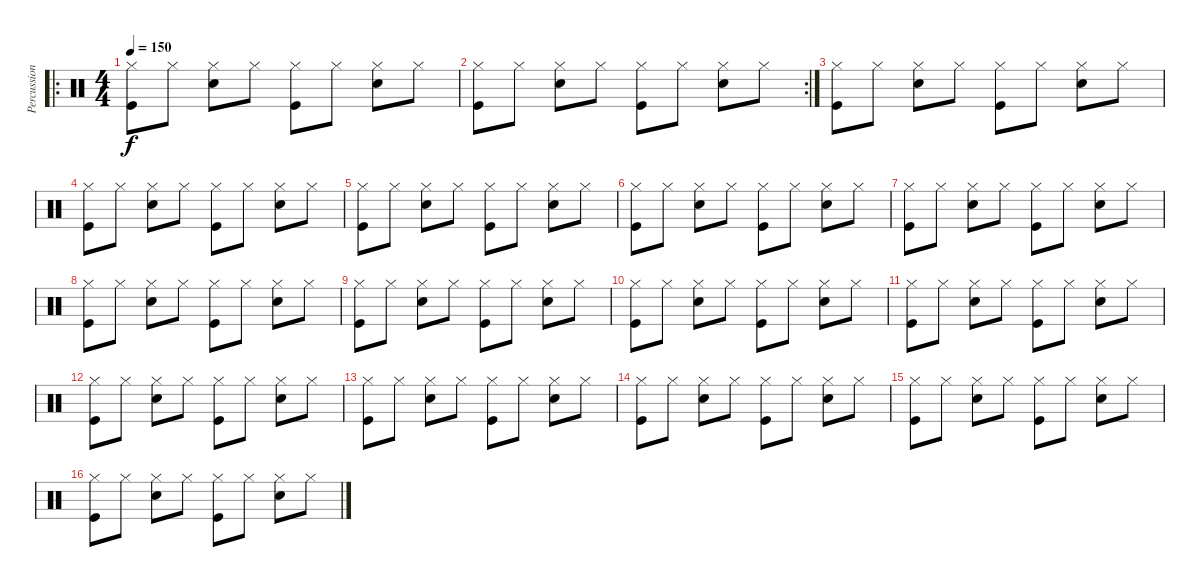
\track ("Percussion" "Percussion") {instrument percussion}
\staff {score}
\articulation defaults
\ro
\ts (4 4)
\tempo 150
\clef neutral
\ks c
("Hi-Hat (closed)" "Kick (hit)").8{dy f} "Hi-Hat (closed)".8 ("Hi-Hat (closed)" "Snare (hit) 2").8 "Hi-Hat (closed)".8 ("Hi-Hat (closed)" "Kick (hit)").8 "Hi-Hat (closed)".8 ("Hi-Hat (closed)" "Snare (hit) 2").8 "Hi-Hat (closed)".8 |
\rc 2
("Hi-Hat (closed)" "Kick (hit)").8 "Hi-Hat (closed)".8 ("Hi-Hat (closed)" "Snare (hit) 2").8 "Hi-Hat (closed)".8 ("Hi-Hat (closed)" "Kick (hit)").8 "Hi-Hat (closed)".8 ("Hi-Hat (closed)" "Snare (hit) 2").8 "Hi-Hat (closed)".8 |
("Hi-Hat (closed)" "Kick (hit)").8 "Hi-Hat (closed)".8 ("Hi-Hat (closed)" "Snare (hit) 2").8 "Hi-Hat (closed)".8 ("Hi-Hat (closed)" "Kick (hit)").8 "Hi-Hat (closed)".8 ("Hi-Hat (closed)" "Snare (hit) 2").8 "Hi-Hat (closed)".8 |
("Hi-Hat (closed)" "Kick (hit)").8 "Hi-Hat (closed)".8 ("Hi-Hat (closed)" "Snare (hit) 2").8 "Hi-Hat (closed)".8 ("Hi-Hat (closed)" "Kick (hit)").8 "Hi-Hat (closed)".8 ("Hi-Hat (closed)" "Snare (hit) 2").8 "Hi-Hat (closed)".8 |
("Hi-Hat (closed)" "Kick (hit)").8 "Hi-Hat (closed)".8 ("Hi-Hat (closed)" "Snare (hit) 2").8 "Hi-Hat (closed)".8 ("Hi-Hat (closed)" "Kick (hit)").8 "Hi-Hat (closed)".8 ("Hi-Hat (closed)" "Snare (hit) 2").8 "Hi-Hat (closed)".8 |
("Hi-Hat (closed)" "Kick (hit)").8 "Hi-Hat (closed)".8 ("Hi-Hat (closed)" "Snare (hit) 2").8 "Hi-Hat (closed)".8 ("Hi-Hat (closed)" "Kick (hit)").8 "Hi-Hat (closed)".8 ("Hi-Hat (closed)" "Snare (hit) 2").8 "Hi-Hat (closed)".8 |
("Hi-Hat (closed)" "Kick (hit)").8 "Hi-Hat (closed)".8 ("Hi-Hat (closed)" "Snare (hit) 2").8 "Hi-Hat (closed)".8 ("Hi-Hat (closed)" "Kick (hit)").8 "Hi-Hat (closed)".8 ("Hi-Hat (closed)" "Snare (hit) 2").8 "Hi-Hat (closed)".8 |
("Hi-Hat (closed)" "Kick (hit)").8 "Hi-Hat (closed)".8 ("Hi-Hat (closed)" "Snare (hit) 2").8 "Hi-Hat (closed)".8 ("Hi-Hat (closed)" "Kick (hit)").8 "Hi-Hat (closed)".8 ("Hi-Hat (closed)" "Snare (hit) 2").8 "Hi-Hat (closed)".8 |
("Hi-Hat (closed)" "Kick (hit)").8 "Hi-Hat (closed)".8 ("Hi-Hat (closed)" "Snare (hit) 2").8 "Hi-Hat (closed)".8 ("Hi-Hat (closed)" "Kick (hit)").8 "Hi-Hat (closed)".8 ("Hi-Hat (closed)" "Snare (hit) 2").8 "Hi-Hat (closed)".8 |
("Hi-Hat (closed)" "Kick (hit)").8 "Hi-Hat (closed)".8 ("Hi-Hat (closed)" "Snare (hit) 2").8 "Hi-Hat (closed)".8 ("Hi-Hat (closed)" "Kick (hit)").8 "Hi-Hat (closed)".8 ("Hi-Hat (closed)" "Snare (hit) 2").8 "Hi-Hat (closed)".8 |
("Hi-Hat (closed)" "Kick (hit)").8 "Hi-Hat (closed)".8 ("Hi-Hat (closed)" "Snare (hit) 2").8 "Hi-Hat (closed)".8 ("Hi-Hat (closed)" "Kick (hit)").8 "Hi-Hat (closed)".8 ("Hi-Hat (closed)" "Snare (hit) 2").8 "Hi-Hat (closed)".8 |
("Hi-Hat (closed)" "Kick (hit)").8 "Hi-Hat (closed)".8 ("Hi-Hat (closed)" "Snare (hit) 2").8 "Hi-Hat (closed)".8 ("Hi-Hat (closed)" "Kick (hit)").8 "Hi-Hat (closed)".8 ("Hi-Hat (closed)" "Snare (hit) 2").8 "Hi-Hat (closed)".8 |
("Hi-Hat (closed)" "Kick (hit)").8 "Hi-Hat (closed)".8 ("Hi-Hat (closed)" "Snare (hit) 2").8 "Hi-Hat (closed)".8 ("Hi-Hat (closed)" "Kick (hit)").8 "Hi-Hat (closed)".8 ("Hi-Hat (closed)" "Snare (hit) 2").8 "Hi-Hat (closed)".8 |
("Hi-Hat (closed)" "Kick (hit)").8 "Hi-Hat (closed)".8 ("Hi-Hat (closed)" "Snare (hit) 2").8 "Hi-Hat (closed)".8 ("Hi-Hat (closed)" "Kick (hit)").8 "Hi-Hat (closed)".8 ("Hi-Hat (closed)" "Snare (hit) 2").8 "Hi-Hat (closed)".8 |
("Hi-Hat (closed)" "Kick (hit)").8 "Hi-Hat (closed)".8 ("Hi-Hat (closed)" "Snare (hit) 2").8 "Hi-Hat (closed)".8 ("Hi-Hat (closed)" "Kick (hit)").8 "Hi-Hat (closed)".8 ("Hi-Hat (closed)" "Snare (hit) 2").8 "Hi-Hat (closed)".8 |
("Hi-Hat (closed)" "Kick (hit)").8 "Hi-Hat (closed)".8 ("Hi-Hat (closed)" "Snare (hit) 2").8 "Hi-Hat (closed)".8 ("Hi-Hat (closed)" "Kick (hit)").8 "Hi-Hat (closed)".8 ("Hi-Hat (closed)" "Snare (hit) 2").8 "Hi-Hat (closed)".8
